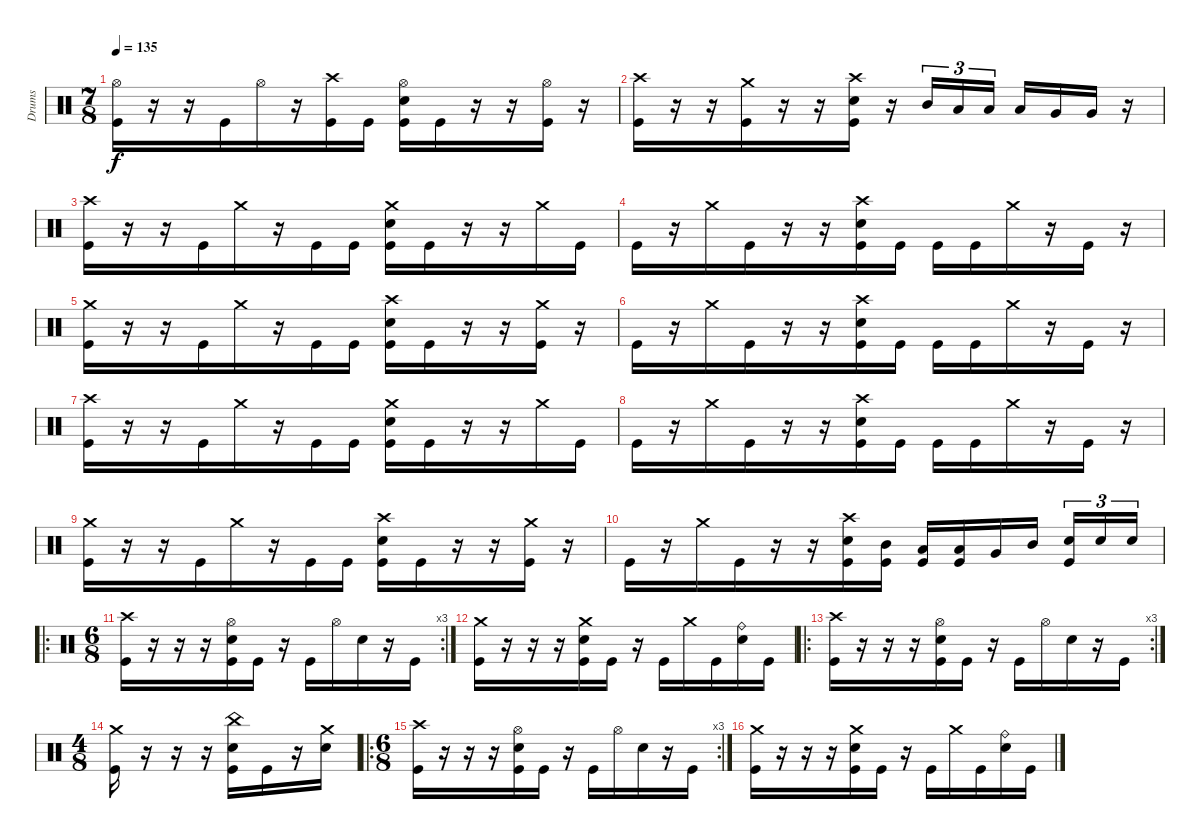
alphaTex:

\track ("Drums" "Drums") {instrument percussion}
\staff {score}
\articulation defaults
\ts (7 8)
\tempo 135
\clef neutral
\ks c
("Hi-Hat (open)" "Kick (hit)").16{dy f} r.16 r.16 "Kick (hit)".16 "Hi-Hat (open)".16 r.16 ("Crash high (hit)" "Kick (hit)").16 "Kick (hit)".16 ("Hi-Hat (open)" "Snare (hit) 2" "Kick (hit)").16 "Kick (hit)".16 r.16 r.16 ("Hi-Hat (open)" "Kick (hit)").16 r.16 |
("Crash high (hit)" "Kick (hit)").16 r.16 r.16 ("Crash medium (hit)" "Kick (hit)").16 r.16 r.16 ("Crash high (hit)" "Snare (hit) 2" "Kick (hit)").16 r.16 "Mid Tom (hit)".16{tu (3 2)} "Low Tom (hit)".16{tu (3 2)} "Low Tom (hit)".16{tu (3 2)} "Low Tom (hit)".16 "Very Low Tom (hit)".16 "Very Low Tom (hit)".16 r.16 |
("Crash high (hit)" "Kick (hit)").16 r.16 r.16 "Kick (hit)".16 "Crash medium (hit)".16 r.16 "Kick (hit)".16 "Kick (hit)".16 ("Crash medium (hit)" "Snare (hit) 2" "Kick (hit)").16 "Kick (hit)".16 r.16 r.16 "Crash medium (hit)".16 "Kick (hit)".16 |
"Kick (hit)".16 r.16 "Crash medium (hit)".16 "Kick (hit)".16 r.16 r.16 ("Crash high (hit)" "Snare (hit) 2" "Kick (hit)").16 "Kick (hit)".16 "Kick (hit)".16 "Kick (hit)".16 "Crash medium (hit)".16 r.16 "Kick (hit)".16 r.16 |
("Crash medium (hit)" "Kick (hit)").16 r.16 r.16 "Kick (hit)".16 "Crash medium (hit)".16 r.16 "Kick (hit)".16 "Kick (hit)".16 ("Crash high (hit)" "Snare (hit) 2" "Kick (hit)").16 "Kick (hit)".16 r.16 r.16 ("Crash medium (hit)" "Kick (hit)").16 r.16 |
"Kick (hit)".16 r.16 "Crash medium (hit)".16 "Kick (hit)".16 r.16 r.16 ("Crash high (hit)" "Snare (hit) 2" "Kick (hit)").16 "Kick (hit)".16 "Kick (hit)".16 "Kick (hit)".16 "Crash medium (hit)".16 r.16 "Kick (hit)".16 r.16 |
("Crash high (hit)" "Kick (hit)").16 r.16 r.16 "Kick (hit)".16 "Crash medium (hit)".16 r.16 "Kick (hit)".16 "Kick (hit)".16 ("Crash medium (hit)" "Snare (hit) 2" "Kick (hit)").16 "Kick (hit)".16 r.16 r.16 "Crash medium (hit)".16 "Kick (hit)".16 |
"Kick (hit)".16 r.16 "Crash medium (hit)".16 "Kick (hit)".16 r.16 r.16 ("Crash high (hit)" "Snare (hit) 2" "Kick (hit)").16 "Kick (hit)".16 "Kick (hit)".16 "Kick (hit)".16 "Crash medium (hit)".16 r.16 "Kick (hit)".16 r.16 |
("Crash medium (hit)" "Kick (hit)").16 r.16 r.16 "Kick (hit)".16 "Crash medium (hit)".16 r.16 "Kick (hit)".16 "Kick (hit)".16 ("Crash high (hit)" "Snare (hit) 2" "Kick (hit)").16 "Kick (hit)".16 r.16 r.16 ("Crash medium (hit)" "Kick (hit)").16 r.16 |
"Kick (hit)".16 r.16 "Crash medium (hit)".16 "Kick (hit)".16 r.16 r.16 ("Crash high (hit)" "Snare (hit) 2" "Kick (hit)").16 ("Mid Tom (hit)" "Kick (hit)").16 ("Low Tom (hit)" "Kick (hit)").16 ("Low Tom (hit)" "Kick (hit)").16 "Very Low Tom (hit)".16 "Mid Tom (hit)".16 ("Snare (hit) 2" "Kick (hit)").16{tu (3 2)} "Snare (hit) 2".16{tu (3 2)} "Snare (hit) 2".16{tu (3 2)} |
\ro
\rc 3
\ts (6 8)
("Crash high (hit)" "Kick (hit)").16 r.16 r.16 r.16 ("Hi-Hat (open)" "Snare (hit) 2" "Kick (hit)").16 "Kick (hit)".16 r.16 "Kick (hit)".16 "Hi-Hat (open)".16 "Snare (hit) 2".16 r.16 "Kick (hit)".16 |
("Crash medium (hit)" "Kick (hit)").16 r.16 r.16 r.16 ("Crash medium (hit)" "Snare (hit) 2" "Kick (hit)").16 "Kick (hit)".16 r.16 "Kick (hit)".16 "Crash medium (hit)".16 "Kick (hit)".16 ("Ride (bell)" "Snare (hit) 2").16 "Kick (hit)".16 |
\ro
\rc 3
("Crash high (hit)" "Kick (hit)").16 r.16 r.16 r.16 ("Hi-Hat (open)" "Snare (hit) 2" "Kick (hit)").16 "Kick (hit)".16 r.16 "Kick (hit)".16 "Hi-Hat (open)".16 "Snare (hit) 2".16 r.16 "Kick (hit)".16 |
\ts (4 8)
("Crash medium (hit)" "Kick (hit)").16 r.16 r.16 r.16 ("China (hit)" "Snare (hit) 2" "Kick (hit)").16 "Kick (hit)".16 r.16 ("Crash medium (hit)" "Snare (hit) 2").16 |
\ro
\rc 3
\ts (6 8)
("Crash high (hit)" "Kick (hit)").16 r.16 r.16 r.16 ("Hi-Hat (open)" "Snare (hit) 2" "Kick (hit)").16 "Kick (hit)".16 r.16 "Kick (hit)".16 "Hi-Hat (open)".16 "Snare (hit) 2".16 r.16 "Kick (hit)".16 |
("Crash medium (hit)" "Kick (hit)").16 r.16 r.16 r.16 ("Crash medium (hit)" "Snare (hit) 2" "Kick (hit)").16 "Kick (hit)".16 r.16 "Kick (hit)".16 "Crash medium (hit)".16 "Kick (hit)".16 ("Ride (bell)" "Snare (hit) 2").16 "Kick (hit)".16
